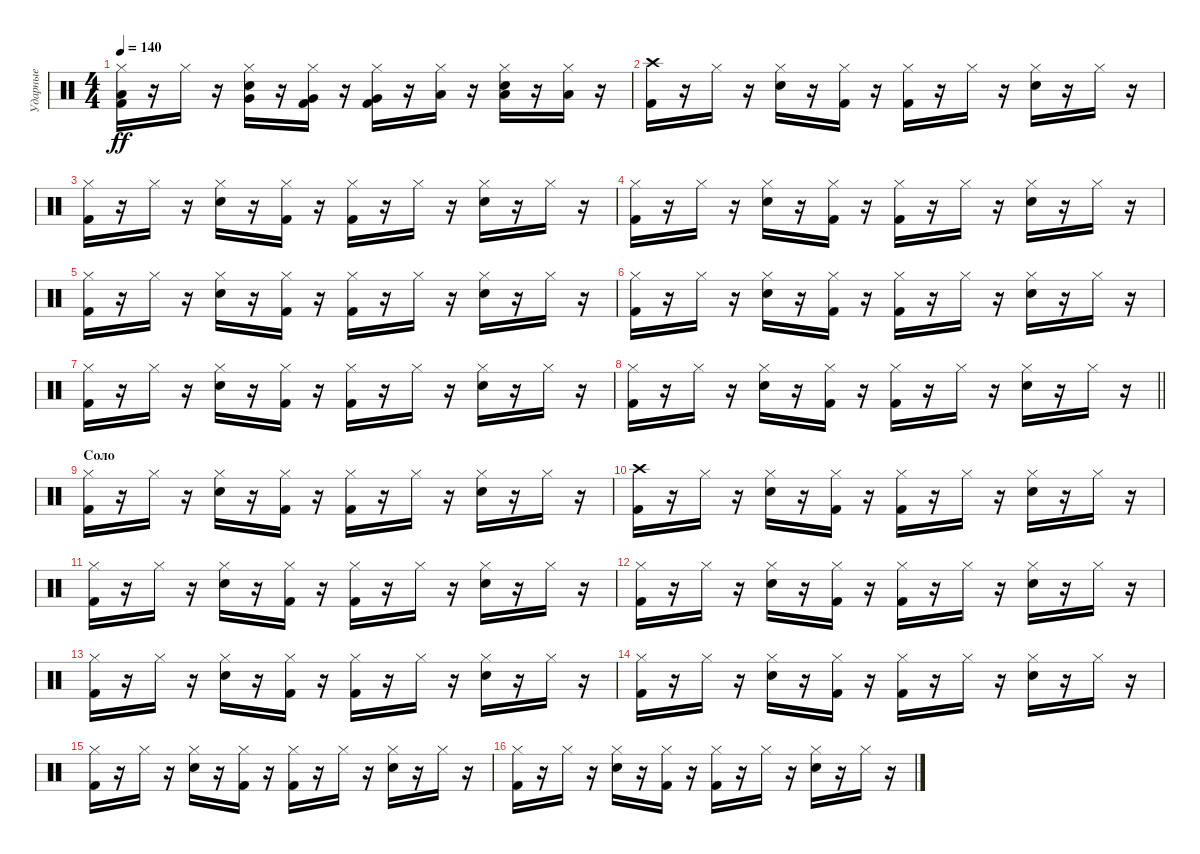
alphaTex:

\track ("Ударные" "Ударные") {instrument percussion}
\staff {score}
\articulation defaults
\ts (4 4)
\tempo 140
\clef neutral
\ks c
("Hi-Hat (closed)" "Kick (hit) 2" "Low Tom (hit)").16{dy ff} r.16 "Hi-Hat (closed)".16 r.16 ("Hi-Hat (closed)" "Snare (hit) 2" "Very Low Tom (hit)").16 r.16 ("Hi-Hat (closed)" "Kick (hit) 2" "Very Low Tom (hit)").16 r.16 ("Hi-Hat (closed)" "Kick (hit) 2" "Very Low Tom (hit)").16 r.16 ("Hi-Hat (closed)" "Low Floor Tom (hit)").16 r.16 ("Hi-Hat (closed)" "Snare (hit) 2" "Low Floor Tom (hit)").16 r.16 ("Hi-Hat (closed)" "Low Floor Tom (hit)").16 r.16 |
("Crash high (hit)" "Kick (hit) 2").16 r.16 "Hi-Hat (closed)".16 r.16 ("Hi-Hat (closed)" "Snare (hit) 2").16 r.16 ("Hi-Hat (closed)" "Kick (hit) 2").16 r.16 ("Hi-Hat (closed)" "Kick (hit) 2").16 r.16 "Hi-Hat (closed)".16 r.16 ("Hi-Hat (closed)" "Snare (hit) 2").16 r.16 "Hi-Hat (closed)".16 r.16 |
("Hi-Hat (closed)" "Kick (hit) 2").16 r.16 "Hi-Hat (closed)".16 r.16 ("Hi-Hat (closed)" "Snare (hit) 2").16 r.16 ("Hi-Hat (closed)" "Kick (hit) 2").16 r.16 ("Hi-Hat (closed)" "Kick (hit) 2").16 r.16 "Hi-Hat (closed)".16 r.16 ("Hi-Hat (closed)" "Snare (hit) 2").16 r.16 "Hi-Hat (closed)".16 r.16 |
("Hi-Hat (closed)" "Kick (hit) 2").16 r.16 "Hi-Hat (closed)".16 r.16 ("Hi-Hat (closed)" "Snare (hit) 2").16 r.16 ("Hi-Hat (closed)" "Kick (hit) 2").16 r.16 ("Hi-Hat (closed)" "Kick (hit) 2").16 r.16 "Hi-Hat (closed)".16 r.16 ("Hi-Hat (closed)" "Snare (hit) 2").16 r.16 "Hi-Hat (closed)".16 r.16 |
("Hi-Hat (closed)" "Kick (hit) 2").16 r.16 "Hi-Hat (closed)".16 r.16 ("Hi-Hat (closed)" "Snare (hit) 2").16 r.16 ("Hi-Hat (closed)" "Kick (hit) 2").16 r.16 ("Hi-Hat (closed)" "Kick (hit) 2").16 r.16 "Hi-Hat (closed)".16 r.16 ("Hi-Hat (closed)" "Snare (hit) 2").16 r.16 "Hi-Hat (closed)".16 r.16 |
("Hi-Hat (closed)" "Kick (hit) 2").16 r.16 "Hi-Hat (closed)".16 r.16 ("Hi-Hat (closed)" "Snare (hit) 2").16 r.16 ("Hi-Hat (closed)" "Kick (hit) 2").16 r.16 ("Hi-Hat (closed)" "Kick (hit) 2").16 r.16 "Hi-Hat (closed)".16 r.16 ("Hi-Hat (closed)" "Snare (hit) 2").16 r.16 "Hi-Hat (closed)".16 r.16 |
("Hi-Hat (closed)" "Kick (hit) 2").16 r.16 "Hi-Hat (closed)".16 r.16 ("Hi-Hat (closed)" "Snare (hit) 2").16 r.16 ("Hi-Hat (closed)" "Kick (hit) 2").16 r.16 ("Hi-Hat (closed)" "Kick (hit) 2").16 r.16 "Hi-Hat (closed)".16 r.16 ("Hi-Hat (closed)" "Snare (hit) 2").16 r.16 "Hi-Hat (closed)".16 r.16 |
\barLineRight lightlight
("Hi-Hat (closed)" "Kick (hit) 2").16 r.16 "Hi-Hat (closed)".16 r.16 ("Hi-Hat (closed)" "Snare (hit) 2").16 r.16 ("Hi-Hat (closed)" "Kick (hit) 2").16 r.16 ("Hi-Hat (closed)" "Kick (hit) 2").16 r.16 "Hi-Hat (closed)".16 r.16 ("Hi-Hat (closed)" "Snare (hit) 2").16 r.16 "Hi-Hat (closed)".16 r.16 |
\section ("" "Соло")
("Hi-Hat (closed)" "Kick (hit) 2").16 r.16 "Hi-Hat (closed)".16 r.16 ("Hi-Hat (closed)" "Snare (hit) 2").16 r.16 ("Hi-Hat (closed)" "Kick (hit) 2").16 r.16 ("Hi-Hat (closed)" "Kick (hit) 2").16 r.16 "Hi-Hat (closed)".16 r.16 ("Hi-Hat (closed)" "Snare (hit) 2").16 r.16 "Hi-Hat (closed)".16 r.16 |
("Crash high (hit)" "Kick (hit) 2").16 r.16 "Hi-Hat (closed)".16 r.16 ("Hi-Hat (closed)" "Snare (hit) 2").16 r.16 ("Hi-Hat (closed)" "Kick (hit) 2").16 r.16 ("Hi-Hat (closed)" "Kick (hit) 2").16 r.16 "Hi-Hat (closed)".16 r.16 ("Hi-Hat (closed)" "Snare (hit) 2").16 r.16 "Hi-Hat (closed)".16 r.16 |
("Hi-Hat (closed)" "Kick (hit) 2").16 r.16 "Hi-Hat (closed)".16 r.16 ("Hi-Hat (closed)" "Snare (hit) 2").16 r.16 ("Hi-Hat (closed)" "Kick (hit) 2").16 r.16 ("Hi-Hat (closed)" "Kick (hit) 2").16 r.16 "Hi-Hat (closed)".16 r.16 ("Hi-Hat (closed)" "Snare (hit) 2").16 r.16 "Hi-Hat (closed)".16 r.16 |
("Hi-Hat (closed)" "Kick (hit) 2").16 r.16 "Hi-Hat (closed)".16 r.16 ("Hi-Hat (closed)" "Snare (hit) 2").16 r.16 ("Hi-Hat (closed)" "Kick (hit) 2").16 r.16 ("Hi-Hat (closed)" "Kick (hit) 2").16 r.16 "Hi-Hat (closed)".16 r.16 ("Hi-Hat (closed)" "Snare (hit) 2").16 r.16 "Hi-Hat (closed)".16 r.16 |
("Hi-Hat (closed)" "Kick (hit) 2").16 r.16 "Hi-Hat (closed)".16 r.16 ("Hi-Hat (closed)" "Snare (hit) 2").16 r.16 ("Hi-Hat (closed)" "Kick (hit) 2").16 r.16 ("Hi-Hat (closed)" "Kick (hit) 2").16 r.16 "Hi-Hat (closed)".16 r.16 ("Hi-Hat (closed)" "Snare (hit) 2").16 r.16 "Hi-Hat (closed)".16 r.16 |
("Hi-Hat (closed)" "Kick (hit) 2").16 r.16 "Hi-Hat (closed)".16 r.16 ("Hi-Hat (closed)" "Snare (hit) 2").16 r.16 ("Hi-Hat (closed)" "Kick (hit) 2").16 r.16 ("Hi-Hat (closed)" "Kick (hit) 2").16 r.16 "Hi-Hat (closed)".16 r.16 ("Hi-Hat (closed)" "Snare (hit) 2").16 r.16 "Hi-Hat (closed)".16 r.16 |
("Hi-Hat (closed)" "Kick (hit) 2").16 r.16 "Hi-Hat (closed)".16 r.16 ("Hi-Hat (closed)" "Snare (hit) 2").16 r.16 ("Hi-Hat (closed)" "Kick (hit) 2").16 r.16 ("Hi-Hat (closed)" "Kick (hit) 2").16 r.16 "Hi-Hat (closed)".16 r.16 ("Hi-Hat (closed)" "Snare (hit) 2").16 r.16 "Hi-Hat (closed)".16 r.16 |
("Hi-Hat (closed)" "Kick (hit) 2").16 r.16 "Hi-Hat (closed)".16 r.16 ("Hi-Hat (closed)" "Snare (hit) 2").16 r.16 ("Hi-Hat (closed)" "Kick (hit) 2").16 r.16 ("Hi-Hat (closed)" "Kick (hit) 2").16 r.16 "Hi-Hat (closed)".16 r.16 ("Hi-Hat (closed)" "Snare (hit) 2").16 r.16 "Hi-Hat (closed)".16 r.16
